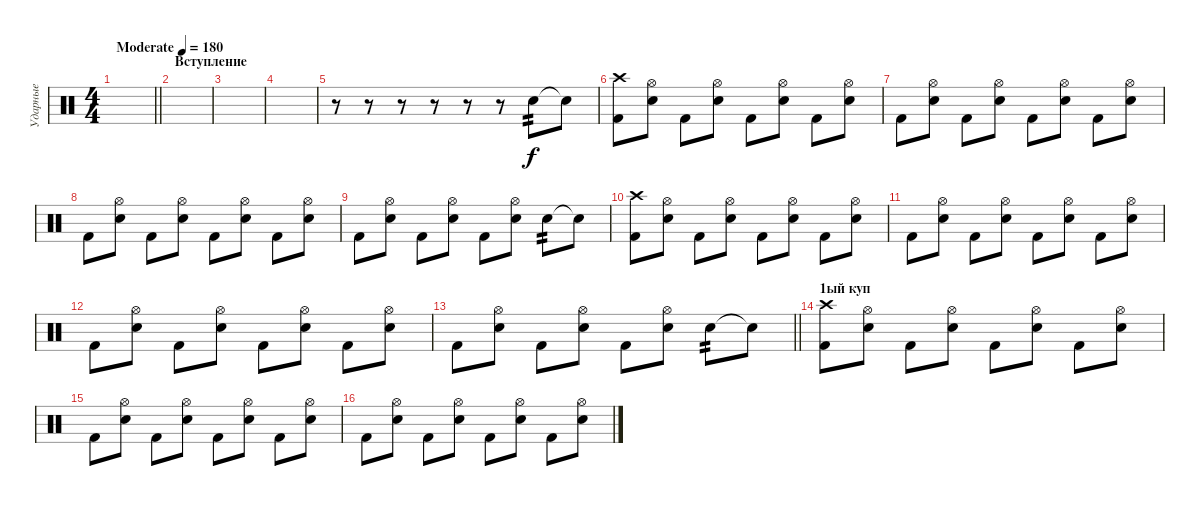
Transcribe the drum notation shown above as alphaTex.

\track ("Ударные" "Ударные") {instrument percussion}
\staff {score}
\articulation defaults
\ts (4 4)
\tempo (180 "Moderate")
\clef neutral
\barLineRight lightlight
\ks c
|
\section ("" "Вступление ")
|
|
|
r.8 r.8 r.8 r.8 r.8 r.8 "Electric Snare (hit)".8{tp 2} "Snare (hit)"{t}.8 |
("Crash high (hit)" "Kick (hit) 2").8 ("Hi-Hat (open)" "Electric Snare (hit)").8 "Kick (hit) 2".8 ("Hi-Hat (open)" "Electric Snare (hit)").8 "Kick (hit) 2".8 ("Hi-Hat (open)" "Electric Snare (hit)").8 "Kick (hit) 2".8 ("Hi-Hat (open)" "Electric Snare (hit)").8 |
"Kick (hit) 2".8 ("Hi-Hat (open)" "Electric Snare (hit)").8 "Kick (hit) 2".8 ("Hi-Hat (open)" "Electric Snare (hit)").8 "Kick (hit) 2".8 ("Hi-Hat (open)" "Electric Snare (hit)").8 "Kick (hit) 2".8 ("Hi-Hat (open)" "Electric Snare (hit)").8 |
"Kick (hit) 2".8 ("Hi-Hat (open)" "Electric Snare (hit)").8 "Kick (hit) 2".8 ("Hi-Hat (open)" "Electric Snare (hit)").8 "Kick (hit) 2".8 ("Hi-Hat (open)" "Electric Snare (hit)").8 "Kick (hit) 2".8 ("Hi-Hat (open)" "Electric Snare (hit)").8 |
"Kick (hit) 2".8 ("Hi-Hat (open)" "Electric Snare (hit)").8 "Kick (hit) 2".8 ("Hi-Hat (open)" "Electric Snare (hit)").8 "Kick (hit) 2".8 ("Hi-Hat (open)" "Electric Snare (hit)").8 "Electric Snare (hit)".8{tp 2} "Electric Snare (hit)"{t}.8 |
("Crash high (hit)" "Kick (hit) 2").8 ("Hi-Hat (open)" "Electric Snare (hit)").8 "Kick (hit) 2".8 ("Hi-Hat (open)" "Electric Snare (hit)").8 "Kick (hit) 2".8 ("Hi-Hat (open)" "Electric Snare (hit)").8 "Kick (hit) 2".8 ("Hi-Hat (open)" "Electric Snare (hit)").8 |
"Kick (hit) 2".8 ("Hi-Hat (open)" "Electric Snare (hit)").8 "Kick (hit) 2".8 ("Hi-Hat (open)" "Electric Snare (hit)").8 "Kick (hit) 2".8 ("Hi-Hat (open)" "Electric Snare (hit)").8 "Kick (hit) 2".8 ("Hi-Hat (open)" "Electric Snare (hit)").8 |
"Kick (hit) 2".8 ("Hi-Hat (open)" "Electric Snare (hit)").8 "Kick (hit) 2".8 ("Hi-Hat (open)" "Electric Snare (hit)").8 "Kick (hit) 2".8 ("Hi-Hat (open)" "Electric Snare (hit)").8 "Kick (hit) 2".8 ("Hi-Hat (open)" "Electric Snare (hit)").8 |
\barLineRight lightlight "Kick (hit) 2".8
("Hi-Hat (open)" "Electric Snare (hit)").8 "Kick (hit) 2".8 ("Hi-Hat (open)" "Electric Snare (hit)").8 "Kick (hit) 2".8 ("Hi-Hat (open)" "Electric Snare (hit)").8 "Electric Snare (hit)".8{tp 2} "Electric Snare (hit)"{t}.8 |
\section ("" "1ый куп")
("Crash high (hit)" "Kick (hit) 2").8 ("Hi-Hat (open)" "Electric Snare (hit)").8 "Kick (hit) 2".8 ("Hi-Hat (open)" "Electric Snare (hit)").8 "Kick (hit) 2".8 ("Hi-Hat (open)" "Electric Snare (hit)").8 "Kick (hit) 2".8 ("Hi-Hat (open)" "Electric Snare (hit)").8 |
"Kick (hit) 2".8 ("Hi-Hat (open)" "Electric Snare (hit)").8 "Kick (hit) 2".8 ("Hi-Hat (open)" "Electric Snare (hit)").8 "Kick (hit) 2".8 ("Hi-Hat (open)" "Electric Snare (hit)").8 "Kick (hit) 2".8 ("Hi-Hat (open)" "Electric Snare (hit)").8 |
"Kick (hit) 2".8 ("Hi-Hat (open)" "Electric Snare (hit)").8 "Kick (hit) 2".8 ("Hi-Hat (open)" "Electric Snare (hit)").8 "Kick (hit) 2".8 ("Hi-Hat (open)" "Electric Snare (hit)").8 "Kick (hit) 2".8 ("Hi-Hat (open)" "Electric Snare (hit)").8
